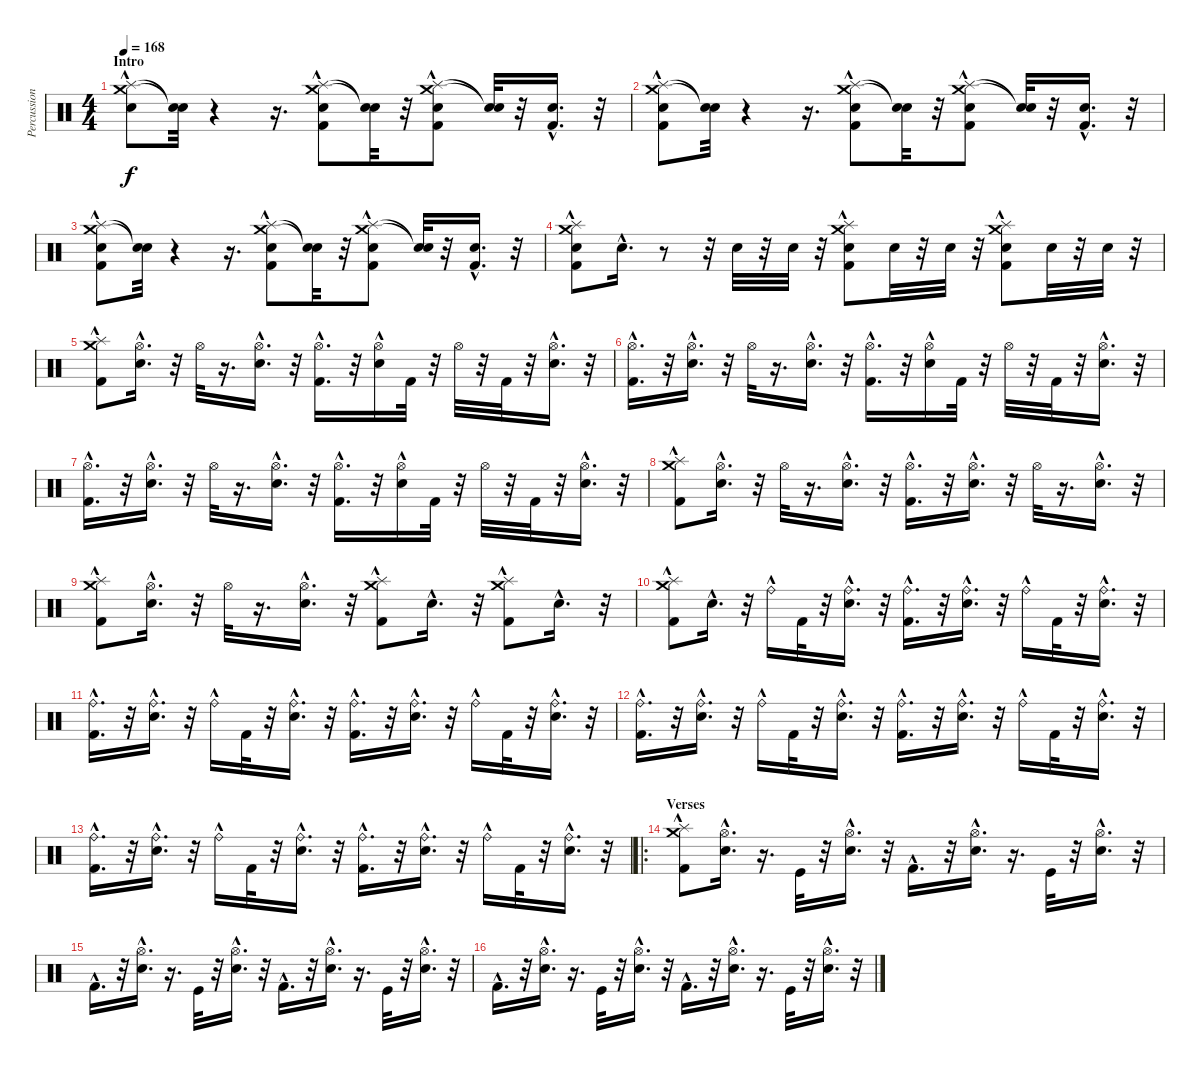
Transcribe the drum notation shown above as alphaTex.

\track ("Percussion" "Percussion") {instrument percussion}
\staff {score}
\articulation defaults
\ts (4 4)
\section ("" "Intro")
\tempo 168
\clef neutral
\ks c
("Splash (hit)" "Crash medium (hit)" "Hand Clap (hit)"{hac}).8{dy f} ("Snare (hit)"{t} "Snare (hit)"{t}).32 r.4 r.16{d} ("Splash (hit)" "Crash medium (hit)" "Electric Snare (hit)"{hac} "Kick (hit) 2"{hac}).8 ("Snare (hit)"{t} "Snare (hit)"{t}).32 r.32 ("Crash medium (hit)" "Splash (hit)" "Kick (hit) 2"{hac} "Electric Snare (hit)"{hac}).8 ("Snare (hit)"{t} "Snare (hit)"{t}).32 r.32 ("Kick (hit) 2"{hac} "Electric Snare (hit)"{hac}).16{d} r.32 |
("Splash (hit)" "Crash medium (hit)" "Kick (hit) 2"{hac} "Electric Snare (hit)"{hac}).8 ("Snare (hit)"{t} "Snare (hit)"{t}).32 r.4 r.16{d} ("Splash (hit)" "Crash medium (hit)" "Electric Snare (hit)"{hac} "Kick (hit) 2"{hac}).8 ("Snare (hit)"{t} "Snare (hit)"{t}).32 r.32 ("Crash medium (hit)" "Splash (hit)" "Kick (hit) 2"{hac} "Electric Snare (hit)"{hac}).8 ("Snare (hit)"{t} "Snare (hit)"{t}).32 r.32 ("Kick (hit) 2"{hac} "Electric Snare (hit)"{hac}).16{d} r.32 |
("Splash (hit)" "Crash medium (hit)" "Kick (hit) 2"{hac} "Electric Snare (hit)"{hac}).8 ("Snare (hit)"{t} "Snare (hit)"{t}).32 r.4 r.16{d} ("Splash (hit)" "Crash medium (hit)" "Electric Snare (hit)"{hac} "Kick (hit) 2"{hac}).8 ("Snare (hit)"{t} "Snare (hit)"{t}).32 r.32 ("Crash medium (hit)" "Splash (hit)" "Kick (hit) 2"{hac} "Electric Snare (hit)"{hac}).8 ("Snare (hit)"{t} "Snare (hit)"{t}).32 r.32 ("Kick (hit) 2"{hac} "Electric Snare (hit)"{hac}).16{d} r.32 |
("Splash (hit)" "Crash medium (hit)" "Kick (hit) 2"{hac} "Electric Snare (hit)"{hac}).8 "Electric Snare (hit)"{hac}.16{d} r.8 r.32 "Electric Snare (hit)".32 r.32 "Electric Snare (hit)".32 r.32 ("Crash medium (hit)" "Splash (hit)" "Kick (hit) 2"{hac} "Electric Snare (hit)"{hac}).8 "Electric Snare (hit)".32 r.32 "Electric Snare (hit)".32 r.32 ("Crash medium (hit)" "Splash (hit)" "Kick (hit) 2"{hac} "Electric Snare (hit)"{hac}).8 "Electric Snare (hit)".32 r.32 "Electric Snare (hit)".32 r.32 |
("Crash medium (hit)" "Splash (hit)" "Kick (hit) 2"{hac}).8 ("Electric Snare (hit)"{hac} "Hi-Hat (open)").16{d} r.32 "Hi-Hat (open)".32 r.16{d} ("Electric Snare (hit)"{hac} "Hi-Hat (open)").16{d} r.32 ("Kick (hit) 2"{hac} "Hi-Hat (open)").16{d} r.32 ("Electric Snare (hit)"{hac} "Hi-Hat (open)").16 "Kick (hit) 2".32 r.32 "Hi-Hat (open)".32 r.32 "Kick (hit) 2".32 r.32 ("Electric Snare (hit)"{hac} "Hi-Hat (open)").16{d} r.32 |
("Kick (hit) 2"{hac} "Hi-Hat (open)").16{d} r.32 ("Electric Snare (hit)"{hac} "Hi-Hat (open)").16{d} r.32 "Hi-Hat (open)".32 r.16{d} ("Electric Snare (hit)"{hac} "Hi-Hat (open)").16{d} r.32 ("Kick (hit) 2"{hac} "Hi-Hat (open)").16{d} r.32 ("Electric Snare (hit)"{hac} "Hi-Hat (open)").16 "Kick (hit) 2".32 r.32 "Hi-Hat (open)".32 r.32 "Kick (hit) 2".32 r.32 ("Electric Snare (hit)"{hac} "Hi-Hat (open)").16{d} r.32 |
("Kick (hit) 2"{hac} "Hi-Hat (open)").16{d} r.32 ("Electric Snare (hit)"{hac} "Hi-Hat (open)").16{d} r.32 "Hi-Hat (open)".32 r.16{d} ("Electric Snare (hit)"{hac} "Hi-Hat (open)").16{d} r.32 ("Kick (hit) 2"{hac} "Hi-Hat (open)").16{d} r.32 ("Electric Snare (hit)"{hac} "Hi-Hat (open)").16 "Kick (hit) 2".32 r.32 "Hi-Hat (open)".32 r.32 "Kick (hit) 2".32 r.32 ("Electric Snare (hit)"{hac} "Hi-Hat (open)").16{d} r.32 |
("Crash medium (hit)" "Splash (hit)" "Kick (hit) 2"{hac}).8 ("Electric Snare (hit)"{hac} "Hi-Hat (open)").16{d} r.32 "Hi-Hat (open)".32 r.16{d} ("Electric Snare (hit)"{hac} "Hi-Hat (open)").16{d} r.32 ("Kick (hit) 2"{hac} "Hi-Hat (open)").16{d} r.32 ("Electric Snare (hit)"{hac} "Hi-Hat (open)").16{d} r.32 "Hi-Hat (open)".32 r.16{d} ("Electric Snare (hit)"{hac} "Hi-Hat (open)").16{d} r.32 |
("Crash medium (hit)" "Splash (hit)" "Kick (hit) 2"{hac}).8 ("Electric Snare (hit)"{hac} "Hi-Hat (open)").16{d} r.32 "Hi-Hat (open)".32 r.16{d} ("Electric Snare (hit)"{hac} "Hi-Hat (open)").16{d} r.32 ("Kick (hit) 2"{hac} "Splash (hit)" "Crash medium (hit)").8 "Electric Snare (hit)"{hac}.16{d} r.32 ("Splash (hit)" "Crash medium (hit)" "Kick (hit) 2"{hac}).8 "Electric Snare (hit)"{hac}.16{d} r.32 |
("Crash medium (hit)" "Splash (hit)" "Kick (hit) 2"{hac}).8 "Electric Snare (hit)"{hac}.16{d} r.32 "Ride (bell)"{hac}.16 "Kick (hit) 2".32 r.32 ("Electric Snare (hit)"{hac} "Ride (bell)"{hac}).16{d} r.32 ("Kick (hit) 2"{hac} "Ride (bell)"{hac}).16{d} r.32 ("Electric Snare (hit)"{hac} "Ride (bell)"{hac}).16{d} r.32 "Ride (bell)"{hac}.16 "Kick (hit) 2".32 r.32 ("Electric Snare (hit)"{hac} "Ride (bell)"{hac}).16{d} r.32 |
("Kick (hit) 2"{hac} "Ride (bell)"{hac}).16{d} r.32 ("Electric Snare (hit)"{hac} "Ride (bell)"{hac}).16{d} r.32 "Ride (bell)"{hac}.16 "Kick (hit) 2".32 r.32 ("Electric Snare (hit)"{hac} "Ride (bell)"{hac}).16{d} r.32 ("Kick (hit) 2"{hac} "Ride (bell)"{hac}).16{d} r.32 ("Electric Snare (hit)"{hac} "Ride (bell)"{hac}).16{d} r.32 "Ride (bell)"{hac}.16 "Kick (hit) 2".32 r.32 ("Electric Snare (hit)"{hac} "Ride (bell)"{hac}).16{d} r.32 |
("Kick (hit) 2"{hac} "Ride (bell)"{hac}).16{d} r.32 ("Electric Snare (hit)"{hac} "Ride (bell)"{hac}).16{d} r.32 "Ride (bell)"{hac}.16 "Kick (hit) 2".32 r.32 ("Electric Snare (hit)"{hac} "Ride (bell)"{hac}).16{d} r.32 ("Kick (hit) 2"{hac} "Ride (bell)"{hac}).16{d} r.32 ("Electric Snare (hit)"{hac} "Ride (bell)"{hac}).16{d} r.32 "Ride (bell)"{hac}.16 "Kick (hit) 2".32 r.32 ("Electric Snare (hit)"{hac} "Ride (bell)"{hac}).16{d} r.32 |
("Kick (hit) 2"{hac} "Ride (bell)"{hac}).16{d} r.32 ("Electric Snare (hit)"{hac} "Ride (bell)"{hac}).16{d} r.32 "Ride (bell)"{hac}.16 "Kick (hit) 2".32 r.32 ("Electric Snare (hit)"{hac} "Ride (bell)"{hac}).16{d} r.32 ("Kick (hit) 2"{hac} "Ride (bell)"{hac}).16{d} r.32 ("Electric Snare (hit)"{hac} "Ride (bell)"{hac}).16{d} r.32 "Ride (bell)"{hac}.16 "Kick (hit) 2".32 r.32 ("Electric Snare (hit)"{hac} "Ride (bell)"{hac}).16{d} r.32 |
\ro
\section ("" "Verses")
("Splash (hit)" "Crash medium (hit)" "Kick (hit) 2"{hac}).8 ("Electric Snare (hit)"{hac} "Hi-Hat (open)").16{d} r.16{d} "Kick (hit)".32 r.32 ("Electric Snare (hit)"{hac} "Hi-Hat (open)").16{d} r.32 "Kick (hit) 2"{hac}.16{d} r.32 ("Electric Snare (hit)"{hac} "Hi-Hat (open)").16{d} r.16{d} "Kick (hit)".32 r.32 ("Electric Snare (hit)"{hac} "Hi-Hat (open)").16{d} r.32 |
"Kick (hit) 2"{hac}.16{d} r.32 ("Electric Snare (hit)"{hac} "Hi-Hat (open)").16{d} r.16{d} "Kick (hit)".32 r.32 ("Electric Snare (hit)"{hac} "Hi-Hat (open)").16{d} r.32 "Kick (hit) 2"{hac}.16{d} r.32 ("Electric Snare (hit)"{hac} "Hi-Hat (open)").16{d} r.16{d} "Kick (hit)".32 r.32 ("Electric Snare (hit)"{hac} "Hi-Hat (open)").16{d} r.32 |
"Kick (hit) 2"{hac}.16{d} r.32 ("Electric Snare (hit)"{hac} "Hi-Hat (open)").16{d} r.16{d} "Kick (hit)".32 r.32 ("Electric Snare (hit)"{hac} "Hi-Hat (open)").16{d} r.32 "Kick (hit) 2"{hac}.16{d} r.32 ("Electric Snare (hit)"{hac} "Hi-Hat (open)").16{d} r.16{d} "Kick (hit)".32 r.32 ("Electric Snare (hit)"{hac} "Hi-Hat (open)").16{d} r.32
